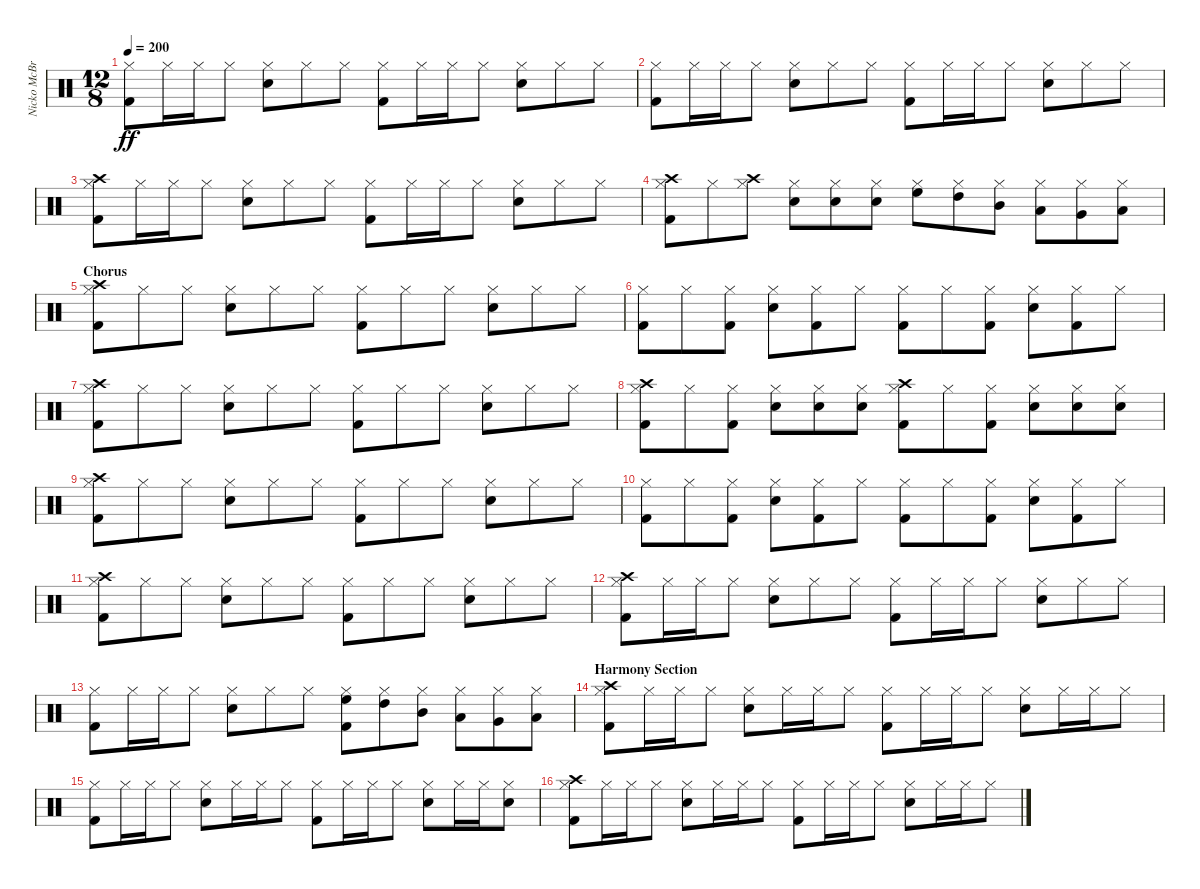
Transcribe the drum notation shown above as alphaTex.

\track ("Nicko McBrain" "Nicko McBr") {instrument percussion}
\staff {score}
\articulation defaults
\ts (12 8)
\tempo 200
\clef neutral
\ks c
("Kick (hit) 2" "Hi-Hat (closed)").8{dy ff} "Hi-Hat (closed)".16 "Hi-Hat (closed)".16 "Hi-Hat (closed)".8 ("Snare (hit) 2" "Hi-Hat (closed)").8 "Hi-Hat (closed)".8 "Hi-Hat (closed)".8 ("Kick (hit) 2" "Hi-Hat (closed)").8 "Hi-Hat (closed)".16 "Hi-Hat (closed)".16 "Hi-Hat (closed)".8 ("Snare (hit) 2" "Hi-Hat (closed)").8 "Hi-Hat (closed)".8 "Hi-Hat (closed)".8 |
("Kick (hit) 2" "Hi-Hat (closed)").8 "Hi-Hat (closed)".16 "Hi-Hat (closed)".16 "Hi-Hat (closed)".8 ("Snare (hit) 2" "Hi-Hat (closed)").8 "Hi-Hat (closed)".8 "Hi-Hat (closed)".8 ("Kick (hit) 2" "Hi-Hat (closed)").8 "Hi-Hat (closed)".16 "Hi-Hat (closed)".16 "Hi-Hat (closed)".8 ("Snare (hit) 2" "Hi-Hat (closed)").8 "Hi-Hat (closed)".8 "Hi-Hat (closed)".8 |
("Kick (hit) 2" "Hi-Hat (closed)" "Crash high (hit)").8 "Hi-Hat (closed)".16 "Hi-Hat (closed)".16 "Hi-Hat (closed)".8 ("Snare (hit) 2" "Hi-Hat (closed)").8 "Hi-Hat (closed)".8 "Hi-Hat (closed)".8 ("Kick (hit) 2" "Hi-Hat (closed)").8 "Hi-Hat (closed)".16 "Hi-Hat (closed)".16 "Hi-Hat (closed)".8 ("Snare (hit) 2" "Hi-Hat (closed)").8 "Hi-Hat (closed)".8 "Hi-Hat (closed)".8 |
("Kick (hit) 2" "Hi-Hat (closed)" "Crash high (hit)").8 "Hi-Hat (closed)".8 ("Hi-Hat (closed)" "Crash high (hit)").8 ("Snare (hit) 2" "Hi-Hat (closed)").8 ("Snare (hit) 2" "Hi-Hat (closed)").8 ("Snare (hit) 2" "Hi-Hat (closed)").8 ("Hi-Hat (closed)" "High Floor Tom (hit)").8 ("Hi-Hat (closed)" "High Tom (hit)").8 ("Hi-Hat (closed)" "Mid Tom (hit)").8 ("Hi-Hat (closed)" "Low Tom (hit)").8 ("Hi-Hat (closed)" "Very Low Tom (hit)").8 ("Low Floor Tom (hit)" "Hi-Hat (closed)").8 |
\section ("" "Chorus")
("Kick (hit) 2" "Hi-Hat (closed)" "Crash high (hit)").8 "Hi-Hat (closed)".8 "Hi-Hat (closed)".8 ("Snare (hit) 2" "Hi-Hat (closed)").8 "Hi-Hat (closed)".8 "Hi-Hat (closed)".8 ("Kick (hit) 2" "Hi-Hat (closed)").8 "Hi-Hat (closed)".8 "Hi-Hat (closed)".8 ("Snare (hit) 2" "Hi-Hat (closed)").8 "Hi-Hat (closed)".8 "Hi-Hat (closed)".8 |
("Kick (hit) 2" "Hi-Hat (closed)").8 "Hi-Hat (closed)".8 ("Kick (hit) 2" "Hi-Hat (closed)").8 ("Snare (hit) 2" "Hi-Hat (closed)").8 ("Kick (hit) 2" "Hi-Hat (closed)").8 "Hi-Hat (closed)".8 ("Kick (hit) 2" "Hi-Hat (closed)").8 "Hi-Hat (closed)".8 ("Kick (hit) 2" "Hi-Hat (closed)").8 ("Snare (hit) 2" "Hi-Hat (closed)").8 ("Kick (hit) 2" "Hi-Hat (closed)").8 "Hi-Hat (closed)".8 |
("Kick (hit) 2" "Hi-Hat (closed)" "Crash high (hit)").8 "Hi-Hat (closed)".8 "Hi-Hat (closed)".8 ("Snare (hit) 2" "Hi-Hat (closed)").8 "Hi-Hat (closed)".8 "Hi-Hat (closed)".8 ("Kick (hit) 2" "Hi-Hat (closed)").8 "Hi-Hat (closed)".8 "Hi-Hat (closed)".8 ("Snare (hit) 2" "Hi-Hat (closed)").8 "Hi-Hat (closed)".8 "Hi-Hat (closed)".8 |
("Kick (hit) 2" "Hi-Hat (closed)" "Crash high (hit)").8 "Hi-Hat (closed)".8 ("Kick (hit) 2" "Hi-Hat (closed)").8 ("Snare (hit) 2" "Hi-Hat (closed)").8 ("Snare (hit) 2" "Hi-Hat (closed)").8 ("Snare (hit) 2" "Hi-Hat (closed)").8 ("Kick (hit) 2" "Hi-Hat (closed)" "Crash high (hit)").8 "Hi-Hat (closed)".8 ("Kick (hit) 2" "Hi-Hat (closed)").8 ("Snare (hit) 2" "Hi-Hat (closed)").8 ("Snare (hit) 2" "Hi-Hat (closed)").8 ("Snare (hit) 2" "Hi-Hat (closed)").8 |
("Kick (hit) 2" "Hi-Hat (closed)" "Crash high (hit)").8 "Hi-Hat (closed)".8 "Hi-Hat (closed)".8 ("Snare (hit) 2" "Hi-Hat (closed)").8 "Hi-Hat (closed)".8 "Hi-Hat (closed)".8 ("Kick (hit) 2" "Hi-Hat (closed)").8 "Hi-Hat (closed)".8 "Hi-Hat (closed)".8 ("Snare (hit) 2" "Hi-Hat (closed)").8 "Hi-Hat (closed)".8 "Hi-Hat (closed)".8 |
("Kick (hit) 2" "Hi-Hat (closed)").8 "Hi-Hat (closed)".8 ("Kick (hit) 2" "Hi-Hat (closed)").8 ("Snare (hit) 2" "Hi-Hat (closed)").8 ("Kick (hit) 2" "Hi-Hat (closed)").8 "Hi-Hat (closed)".8 ("Kick (hit) 2" "Hi-Hat (closed)").8 "Hi-Hat (closed)".8 ("Kick (hit) 2" "Hi-Hat (closed)").8 ("Snare (hit) 2" "Hi-Hat (closed)").8 ("Kick (hit) 2" "Hi-Hat (closed)").8 "Hi-Hat (closed)".8 |
("Kick (hit) 2" "Hi-Hat (closed)" "Crash high (hit)").8 "Hi-Hat (closed)".8 "Hi-Hat (closed)".8 ("Snare (hit) 2" "Hi-Hat (closed)").8 "Hi-Hat (closed)".8 "Hi-Hat (closed)".8 ("Kick (hit) 2" "Hi-Hat (closed)").8 "Hi-Hat (closed)".8 "Hi-Hat (closed)".8 ("Snare (hit) 2" "Hi-Hat (closed)").8 "Hi-Hat (closed)".8 "Hi-Hat (closed)".8 |
("Kick (hit) 2" "Hi-Hat (closed)" "Crash high (hit)").8 "Hi-Hat (closed)".16 "Hi-Hat (closed)".16 "Hi-Hat (closed)".8 ("Snare (hit) 2" "Hi-Hat (closed)").8 "Hi-Hat (closed)".8 "Hi-Hat (closed)".8 ("Kick (hit) 2" "Hi-Hat (closed)").8 "Hi-Hat (closed)".16 "Hi-Hat (closed)".16 "Hi-Hat (closed)".8 ("Snare (hit) 2" "Hi-Hat (closed)").8 "Hi-Hat (closed)".8 "Hi-Hat (closed)".8 |
("Kick (hit) 2" "Hi-Hat (closed)").8 "Hi-Hat (closed)".16 "Hi-Hat (closed)".16 "Hi-Hat (closed)".8 ("Snare (hit) 2" "Hi-Hat (closed)").8 "Hi-Hat (closed)".8 "Hi-Hat (closed)".8 ("Kick (hit) 2" "Hi-Hat (closed)" "High Floor Tom (hit)").8 ("Hi-Hat (closed)" "High Tom (hit)").8 ("Hi-Hat (closed)" "Mid Tom (hit)").8 ("Hi-Hat (closed)" "Low Tom (hit)").8 ("Hi-Hat (closed)" "Very Low Tom (hit)").8 ("Low Floor Tom (hit)" "Hi-Hat (closed)").8 |
\section ("" "Harmony Section")
("Kick (hit) 2" "Hi-Hat (closed)" "Crash high (hit)").8 "Hi-Hat (closed)".16 "Hi-Hat (closed)".16 "Hi-Hat (closed)".8 ("Snare (hit) 2" "Hi-Hat (closed)").8 "Hi-Hat (closed)".16 "Hi-Hat (closed)".16 "Hi-Hat (closed)".8 ("Kick (hit) 2" "Hi-Hat (closed)").8 "Hi-Hat (closed)".16 "Hi-Hat (closed)".16 "Hi-Hat (closed)".8 ("Snare (hit) 2" "Hi-Hat (closed)").8 "Hi-Hat (closed)".16 "Hi-Hat (closed)".16 "Hi-Hat (closed)".8 |
("Kick (hit) 2" "Hi-Hat (closed)").8 "Hi-Hat (closed)".16 "Hi-Hat (closed)".16 "Hi-Hat (closed)".8 ("Snare (hit) 2" "Hi-Hat (closed)").8 "Hi-Hat (closed)".16 "Hi-Hat (closed)".16 "Hi-Hat (closed)".8 ("Kick (hit) 2" "Hi-Hat (closed)").8 "Hi-Hat (closed)".16 "Hi-Hat (closed)".16 "Hi-Hat (closed)".8 ("Snare (hit) 2" "Hi-Hat (closed)").8 "Hi-Hat (closed)".16 "Hi-Hat (closed)".16 ("Snare (hit) 2" "Hi-Hat (closed)").8 |
("Kick (hit) 2" "Hi-Hat (closed)" "Crash high (hit)").8 "Hi-Hat (closed)".16 "Hi-Hat (closed)".16 "Hi-Hat (closed)".8 ("Snare (hit) 2" "Hi-Hat (closed)").8 "Hi-Hat (closed)".16 "Hi-Hat (closed)".16 "Hi-Hat (closed)".8 ("Kick (hit) 2" "Hi-Hat (closed)").8 "Hi-Hat (closed)".16 "Hi-Hat (closed)".16 "Hi-Hat (closed)".8 ("Snare (hit) 2" "Hi-Hat (closed)").8 "Hi-Hat (closed)".16 "Hi-Hat (closed)".16 "Hi-Hat (closed)".8
